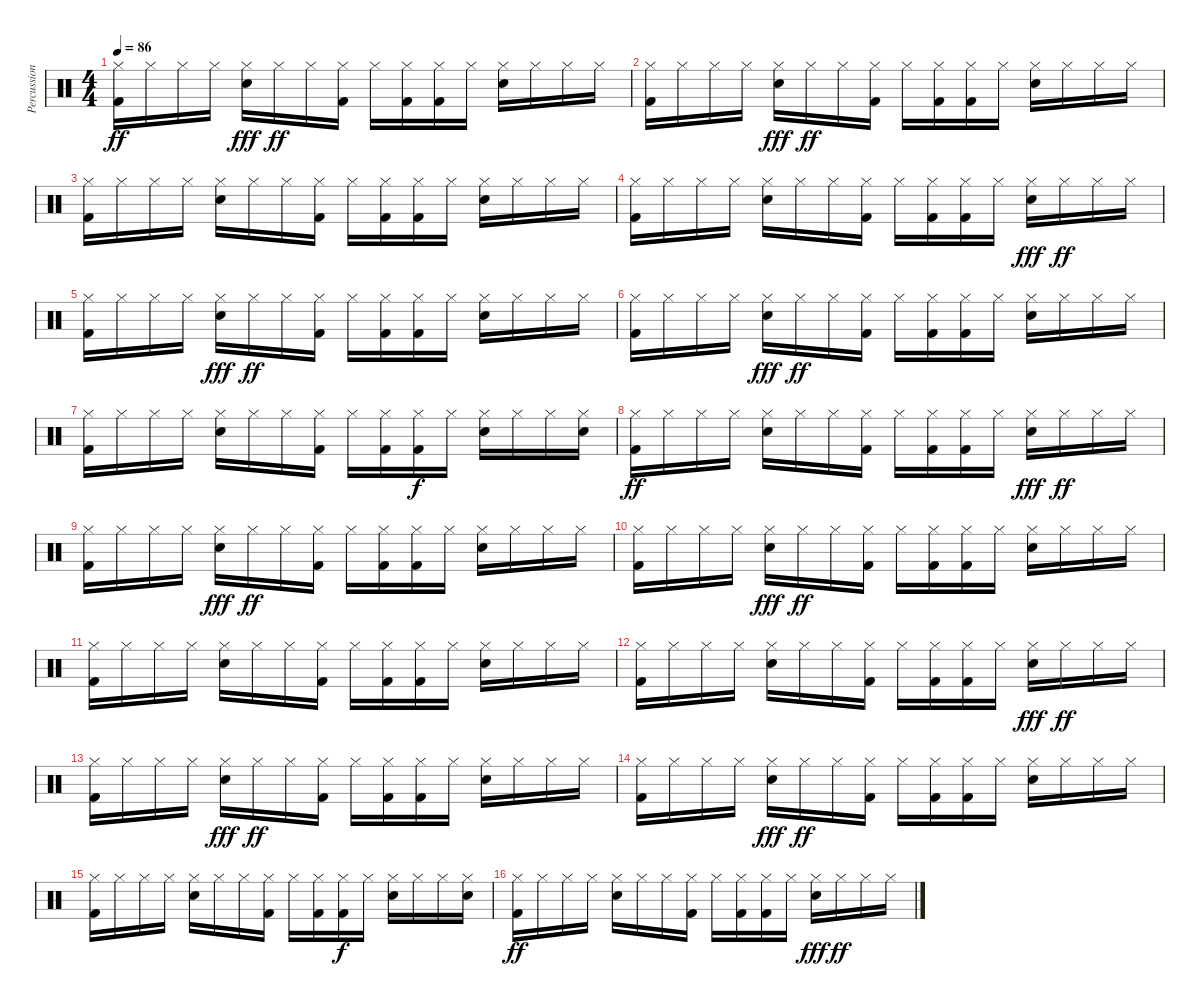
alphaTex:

\track ("Percussion" "Percussion") {instrument percussion}
\staff {score}
\articulation defaults
\ts (4 4)
\tempo 86
\clef neutral
\ks c
("Hi-Hat (closed)" "Kick (hit) 2").16{dy ff} "Hi-Hat (closed)".16 "Hi-Hat (closed)".16 "Hi-Hat (closed)".16 ("Snare (hit) 2" "Hi-Hat (closed)").16{dy fff} "Hi-Hat (closed)".16{dy ff} "Hi-Hat (closed)".16 ("Hi-Hat (closed)" "Kick (hit) 2").16 "Hi-Hat (closed)".16 ("Kick (hit) 2" "Hi-Hat (closed)").16 ("Kick (hit) 2" "Hi-Hat (closed)").16 "Hi-Hat (closed)".16 ("Hi-Hat (closed)" "Snare (hit) 2").16 "Hi-Hat (closed)".16 "Hi-Hat (closed)".16 "Hi-Hat (closed)".16 |
("Hi-Hat (closed)" "Kick (hit) 2").16 "Hi-Hat (closed)".16 "Hi-Hat (closed)".16 "Hi-Hat (closed)".16 ("Snare (hit) 2" "Hi-Hat (closed)").16{dy fff} "Hi-Hat (closed)".16{dy ff} "Hi-Hat (closed)".16 ("Hi-Hat (closed)" "Kick (hit) 2").16 "Hi-Hat (closed)".16 ("Kick (hit) 2" "Hi-Hat (closed)").16 ("Kick (hit) 2" "Hi-Hat (closed)").16 "Hi-Hat (closed)".16 ("Hi-Hat (closed)" "Snare (hit) 2").16 "Hi-Hat (closed)".16 "Hi-Hat (closed)".16 "Hi-Hat (closed)".16 |
("Hi-Hat (closed)" "Kick (hit) 2").16 "Hi-Hat (closed)".16 "Hi-Hat (closed)".16 "Hi-Hat (closed)".16 ("Hi-Hat (closed)" "Snare (hit) 2").16 "Hi-Hat (closed)".16 "Hi-Hat (closed)".16 ("Hi-Hat (closed)" "Kick (hit) 2").16 "Hi-Hat (closed)".16 ("Hi-Hat (closed)" "Kick (hit) 2").16 ("Hi-Hat (closed)" "Kick (hit) 2").16 "Hi-Hat (closed)".16 ("Hi-Hat (closed)" "Snare (hit) 2").16 "Hi-Hat (closed)".16 "Hi-Hat (closed)".16 "Hi-Hat (closed)".16 |
("Hi-Hat (closed)" "Kick (hit) 2").16 "Hi-Hat (closed)".16 "Hi-Hat (closed)".16 "Hi-Hat (closed)".16 ("Hi-Hat (closed)" "Snare (hit) 2").16 "Hi-Hat (closed)".16 "Hi-Hat (closed)".16 ("Hi-Hat (closed)" "Kick (hit) 2").16 "Hi-Hat (closed)".16 ("Hi-Hat (closed)" "Kick (hit) 2").16 ("Hi-Hat (closed)" "Kick (hit) 2").16 "Hi-Hat (closed)".16 ("Hi-Hat (closed)" "Snare (hit) 2").16{dy fff} "Hi-Hat (closed)".16{dy ff} "Hi-Hat (closed)".16 "Hi-Hat (closed)".16 |
("Hi-Hat (closed)" "Kick (hit) 2").16 "Hi-Hat (closed)".16 "Hi-Hat (closed)".16 "Hi-Hat (closed)".16 ("Snare (hit) 2" "Hi-Hat (closed)").16{dy fff} "Hi-Hat (closed)".16{dy ff} "Hi-Hat (closed)".16 ("Hi-Hat (closed)" "Kick (hit) 2").16 "Hi-Hat (closed)".16 ("Kick (hit) 2" "Hi-Hat (closed)").16 ("Kick (hit) 2" "Hi-Hat (closed)").16 "Hi-Hat (closed)".16 ("Hi-Hat (closed)" "Snare (hit) 2").16 "Hi-Hat (closed)".16 "Hi-Hat (closed)".16 "Hi-Hat (closed)".16 |
("Hi-Hat (closed)" "Kick (hit) 2").16 "Hi-Hat (closed)".16 "Hi-Hat (closed)".16 "Hi-Hat (closed)".16 ("Snare (hit) 2" "Hi-Hat (closed)").16{dy fff} "Hi-Hat (closed)".16{dy ff} "Hi-Hat (closed)".16 ("Hi-Hat (closed)" "Kick (hit) 2").16 "Hi-Hat (closed)".16 ("Kick (hit) 2" "Hi-Hat (closed)").16 ("Kick (hit) 2" "Hi-Hat (closed)").16 "Hi-Hat (closed)".16 ("Hi-Hat (closed)" "Snare (hit) 2").16 "Hi-Hat (closed)".16 "Hi-Hat (closed)".16 "Hi-Hat (closed)".16 |
("Hi-Hat (closed)" "Kick (hit) 2").16 "Hi-Hat (closed)".16 "Hi-Hat (closed)".16 "Hi-Hat (closed)".16 ("Hi-Hat (closed)" "Snare (hit) 2").16 "Hi-Hat (closed)".16 "Hi-Hat (closed)".16 ("Hi-Hat (closed)" "Kick (hit) 2").16 "Hi-Hat (closed)".16 ("Hi-Hat (closed)" "Kick (hit) 2").16 ("Hi-Hat (closed)" "Kick (hit) 2").16{dy f} "Hi-Hat (closed)".16 ("Hi-Hat (closed)" "Snare (hit) 2").16 "Hi-Hat (closed)".16 "Hi-Hat (closed)".16 ("Hi-Hat (closed)" "Snare (hit) 2").16 |
("Hi-Hat (closed)" "Kick (hit) 2").16{dy ff} "Hi-Hat (closed)".16 "Hi-Hat (closed)".16 "Hi-Hat (closed)".16 ("Hi-Hat (closed)" "Snare (hit) 2").16 "Hi-Hat (closed)".16 "Hi-Hat (closed)".16 ("Hi-Hat (closed)" "Kick (hit) 2").16 "Hi-Hat (closed)".16 ("Hi-Hat (closed)" "Kick (hit) 2").16 ("Hi-Hat (closed)" "Kick (hit) 2").16 "Hi-Hat (closed)".16 ("Hi-Hat (closed)" "Snare (hit) 2").16{dy fff} "Hi-Hat (closed)".16{dy ff} "Hi-Hat (closed)".16 "Hi-Hat (closed)".16 |
("Hi-Hat (closed)" "Kick (hit) 2").16 "Hi-Hat (closed)".16 "Hi-Hat (closed)".16 "Hi-Hat (closed)".16 ("Snare (hit) 2" "Hi-Hat (closed)").16{dy fff} "Hi-Hat (closed)".16{dy ff} "Hi-Hat (closed)".16 ("Hi-Hat (closed)" "Kick (hit) 2").16 "Hi-Hat (closed)".16 ("Kick (hit) 2" "Hi-Hat (closed)").16 ("Kick (hit) 2" "Hi-Hat (closed)").16 "Hi-Hat (closed)".16 ("Hi-Hat (closed)" "Snare (hit) 2").16 "Hi-Hat (closed)".16 "Hi-Hat (closed)".16 "Hi-Hat (closed)".16 |
("Hi-Hat (closed)" "Kick (hit) 2").16 "Hi-Hat (closed)".16 "Hi-Hat (closed)".16 "Hi-Hat (closed)".16 ("Snare (hit) 2" "Hi-Hat (closed)").16{dy fff} "Hi-Hat (closed)".16{dy ff} "Hi-Hat (closed)".16 ("Hi-Hat (closed)" "Kick (hit) 2").16 "Hi-Hat (closed)".16 ("Kick (hit) 2" "Hi-Hat (closed)").16 ("Kick (hit) 2" "Hi-Hat (closed)").16 "Hi-Hat (closed)".16 ("Hi-Hat (closed)" "Snare (hit) 2").16 "Hi-Hat (closed)".16 "Hi-Hat (closed)".16 "Hi-Hat (closed)".16 |
("Hi-Hat (closed)" "Kick (hit) 2").16 "Hi-Hat (closed)".16 "Hi-Hat (closed)".16 "Hi-Hat (closed)".16 ("Hi-Hat (closed)" "Snare (hit) 2").16 "Hi-Hat (closed)".16 "Hi-Hat (closed)".16 ("Hi-Hat (closed)" "Kick (hit) 2").16 "Hi-Hat (closed)".16 ("Hi-Hat (closed)" "Kick (hit) 2").16 ("Hi-Hat (closed)" "Kick (hit) 2").16 "Hi-Hat (closed)".16 ("Hi-Hat (closed)" "Snare (hit) 2").16 "Hi-Hat (closed)".16 "Hi-Hat (closed)".16 "Hi-Hat (closed)".16 |
("Hi-Hat (closed)" "Kick (hit) 2").16 "Hi-Hat (closed)".16 "Hi-Hat (closed)".16 "Hi-Hat (closed)".16 ("Hi-Hat (closed)" "Snare (hit) 2").16 "Hi-Hat (closed)".16 "Hi-Hat (closed)".16 ("Hi-Hat (closed)" "Kick (hit) 2").16 "Hi-Hat (closed)".16 ("Hi-Hat (closed)" "Kick (hit) 2").16 ("Hi-Hat (closed)" "Kick (hit) 2").16 "Hi-Hat (closed)".16 ("Hi-Hat (closed)" "Snare (hit) 2").16{dy fff} "Hi-Hat (closed)".16{dy ff} "Hi-Hat (closed)".16 "Hi-Hat (closed)".16 |
("Hi-Hat (closed)" "Kick (hit) 2").16 "Hi-Hat (closed)".16 "Hi-Hat (closed)".16 "Hi-Hat (closed)".16 ("Snare (hit) 2" "Hi-Hat (closed)").16{dy fff} "Hi-Hat (closed)".16{dy ff} "Hi-Hat (closed)".16 ("Hi-Hat (closed)" "Kick (hit) 2").16 "Hi-Hat (closed)".16 ("Kick (hit) 2" "Hi-Hat (closed)").16 ("Kick (hit) 2" "Hi-Hat (closed)").16 "Hi-Hat (closed)".16 ("Hi-Hat (closed)" "Snare (hit) 2").16 "Hi-Hat (closed)".16 "Hi-Hat (closed)".16 "Hi-Hat (closed)".16 |
("Hi-Hat (closed)" "Kick (hit) 2").16 "Hi-Hat (closed)".16 "Hi-Hat (closed)".16 "Hi-Hat (closed)".16 ("Snare (hit) 2" "Hi-Hat (closed)").16{dy fff} "Hi-Hat (closed)".16{dy ff} "Hi-Hat (closed)".16 ("Hi-Hat (closed)" "Kick (hit) 2").16 "Hi-Hat (closed)".16 ("Kick (hit) 2" "Hi-Hat (closed)").16 ("Kick (hit) 2" "Hi-Hat (closed)").16 "Hi-Hat (closed)".16 ("Hi-Hat (closed)" "Snare (hit) 2").16 "Hi-Hat (closed)".16 "Hi-Hat (closed)".16 "Hi-Hat (closed)".16 |
("Hi-Hat (closed)" "Kick (hit) 2").16 "Hi-Hat (closed)".16 "Hi-Hat (closed)".16 "Hi-Hat (closed)".16 ("Hi-Hat (closed)" "Snare (hit) 2").16 "Hi-Hat (closed)".16 "Hi-Hat (closed)".16 ("Hi-Hat (closed)" "Kick (hit) 2").16 "Hi-Hat (closed)".16 ("Hi-Hat (closed)" "Kick (hit) 2").16 ("Hi-Hat (closed)" "Kick (hit) 2").16{dy f} "Hi-Hat (closed)".16 ("Hi-Hat (closed)" "Snare (hit) 2").16 "Hi-Hat (closed)".16 "Hi-Hat (closed)".16 ("Hi-Hat (closed)" "Snare (hit) 2").16 |
("Hi-Hat (closed)" "Kick (hit) 2").16{dy ff} "Hi-Hat (closed)".16 "Hi-Hat (closed)".16 "Hi-Hat (closed)".16 ("Hi-Hat (closed)" "Snare (hit) 2").16 "Hi-Hat (closed)".16 "Hi-Hat (closed)".16 ("Hi-Hat (closed)" "Kick (hit) 2").16 "Hi-Hat (closed)".16 ("Hi-Hat (closed)" "Kick (hit) 2").16 ("Hi-Hat (closed)" "Kick (hit) 2").16 "Hi-Hat (closed)".16 ("Hi-Hat (closed)" "Snare (hit) 2").16{dy fff} "Hi-Hat (closed)".16{dy ff} "Hi-Hat (closed)".16 "Hi-Hat (closed)".16
